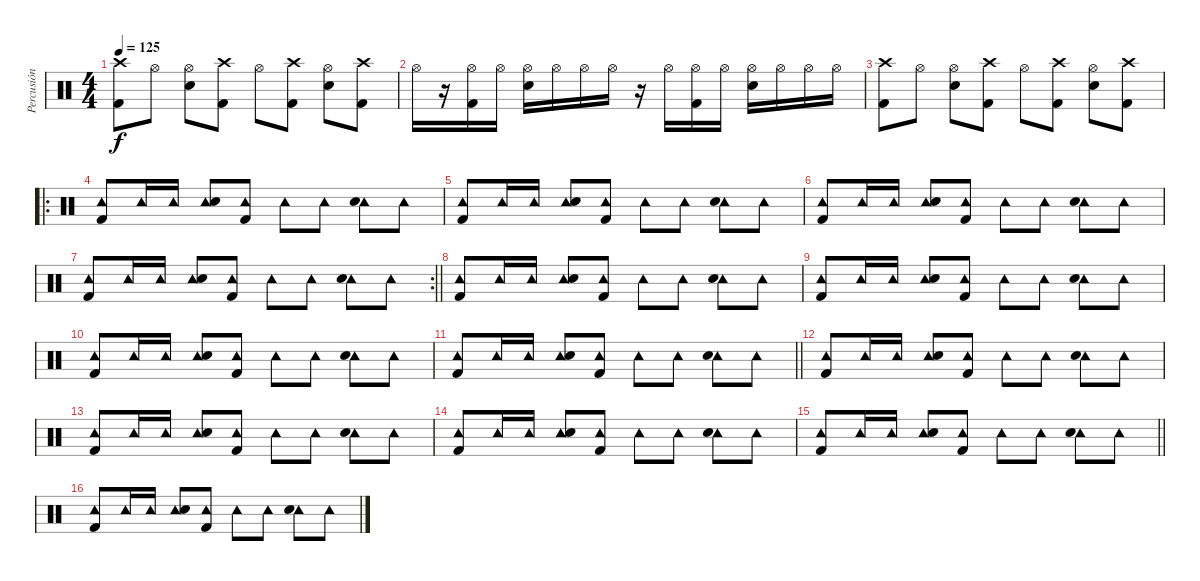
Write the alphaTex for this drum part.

\track ("Percusión" "Percusión") {instrument percussion}
\staff {score}
\articulation defaults
\ts (4 4)
\tempo 125
\clef neutral
\ks c
("Crash high (hit)" "Kick (hit) 2").8{dy f} "Hi-Hat (open)".8 ("Hi-Hat (open)" "Electric Snare (hit)").8 ("Crash high (hit)" "Kick (hit) 2").8 "Hi-Hat (open)".8 ("Crash high (hit)" "Kick (hit) 2").8 ("Hi-Hat (open)" "Electric Snare (hit)").8 ("Crash high (hit)" "Kick (hit) 2").8 |
"Hi-Hat (open)".16 r.16 ("Hi-Hat (open)" "Kick (hit) 2").16 "Hi-Hat (open)".16 ("Hi-Hat (open)" "Electric Snare (hit)").16 "Hi-Hat (open)".16 "Hi-Hat (open)".16 "Hi-Hat (open)".16 r.16 "Hi-Hat (open)".16 ("Hi-Hat (open)" "Kick (hit) 2").16 "Hi-Hat (open)".16 ("Hi-Hat (open)" "Electric Snare (hit)").16 "Hi-Hat (open)".16 "Hi-Hat (open)".16 "Hi-Hat (open)".16 |
("Crash high (hit)" "Kick (hit) 2").8 "Hi-Hat (open)".8 ("Hi-Hat (open)" "Electric Snare (hit)").8 ("Crash high (hit)" "Kick (hit) 2").8 "Hi-Hat (open)".8 ("Crash high (hit)" "Kick (hit) 2").8 ("Hi-Hat (open)" "Electric Snare (hit)").8 ("Crash high (hit)" "Kick (hit) 2").8 |
\ro
("Tambourine (hit)" "Kick (hit) 2").8 "Tambourine (hit)".16 "Tambourine (hit)".16 ("Tambourine (hit)" "Electric Snare (hit)").8 ("Tambourine (hit)" "Kick (hit) 2").8 "Tambourine (hit)".8 "Tambourine (hit)".8 ("Tambourine (hit)" "Electric Snare (hit)").8 "Tambourine (hit)".8 |
("Tambourine (hit)" "Kick (hit) 2").8 "Tambourine (hit)".16 "Tambourine (hit)".16 ("Tambourine (hit)" "Electric Snare (hit)").8 ("Tambourine (hit)" "Kick (hit) 2").8 "Tambourine (hit)".8 "Tambourine (hit)".8 ("Tambourine (hit)" "Electric Snare (hit)").8 "Tambourine (hit)".8 |
("Tambourine (hit)" "Kick (hit) 2").8 "Tambourine (hit)".16 "Tambourine (hit)".16 ("Tambourine (hit)" "Electric Snare (hit)").8 ("Tambourine (hit)" "Kick (hit) 2").8 "Tambourine (hit)".8 "Tambourine (hit)".8 ("Tambourine (hit)" "Electric Snare (hit)").8 "Tambourine (hit)".8 |
\rc 2
\barLineRight lightlight
("Tambourine (hit)" "Kick (hit) 2").8 "Tambourine (hit)".16 "Tambourine (hit)".16 ("Tambourine (hit)" "Electric Snare (hit)").8 ("Tambourine (hit)" "Kick (hit) 2").8 "Tambourine (hit)".8 "Tambourine (hit)".8 ("Tambourine (hit)" "Electric Snare (hit)").8 "Tambourine (hit)".8 |
("Tambourine (hit)" "Kick (hit) 2").8 "Tambourine (hit)".16 "Tambourine (hit)".16 ("Tambourine (hit)" "Electric Snare (hit)").8 ("Tambourine (hit)" "Kick (hit) 2").8 "Tambourine (hit)".8 "Tambourine (hit)".8 ("Tambourine (hit)" "Electric Snare (hit)").8 "Tambourine (hit)".8 |
("Tambourine (hit)" "Kick (hit) 2").8 "Tambourine (hit)".16 "Tambourine (hit)".16 ("Tambourine (hit)" "Electric Snare (hit)").8 ("Tambourine (hit)" "Kick (hit) 2").8 "Tambourine (hit)".8 "Tambourine (hit)".8 ("Tambourine (hit)" "Electric Snare (hit)").8 "Tambourine (hit)".8 |
("Tambourine (hit)" "Kick (hit) 2").8 "Tambourine (hit)".16 "Tambourine (hit)".16 ("Tambourine (hit)" "Electric Snare (hit)").8 ("Tambourine (hit)" "Kick (hit) 2").8 "Tambourine (hit)".8 "Tambourine (hit)".8 ("Tambourine (hit)" "Electric Snare (hit)").8 "Tambourine (hit)".8 |
\barLineRight lightlight
("Tambourine (hit)" "Kick (hit) 2").8 "Tambourine (hit)".16 "Tambourine (hit)".16 ("Tambourine (hit)" "Electric Snare (hit)").8 ("Tambourine (hit)" "Kick (hit) 2").8 "Tambourine (hit)".8 "Tambourine (hit)".8 ("Tambourine (hit)" "Electric Snare (hit)").8 "Tambourine (hit)".8 |
("Tambourine (hit)" "Kick (hit) 2").8 "Tambourine (hit)".16 "Tambourine (hit)".16 ("Tambourine (hit)" "Electric Snare (hit)").8 ("Tambourine (hit)" "Kick (hit) 2").8 "Tambourine (hit)".8 "Tambourine (hit)".8 ("Tambourine (hit)" "Electric Snare (hit)").8 "Tambourine (hit)".8 |
("Tambourine (hit)" "Kick (hit) 2").8 "Tambourine (hit)".16 "Tambourine (hit)".16 ("Tambourine (hit)" "Electric Snare (hit)").8 ("Tambourine (hit)" "Kick (hit) 2").8 "Tambourine (hit)".8 "Tambourine (hit)".8 ("Tambourine (hit)" "Electric Snare (hit)").8 "Tambourine (hit)".8 |
("Tambourine (hit)" "Kick (hit) 2").8 "Tambourine (hit)".16 "Tambourine (hit)".16 ("Tambourine (hit)" "Electric Snare (hit)").8 ("Tambourine (hit)" "Kick (hit) 2").8 "Tambourine (hit)".8 "Tambourine (hit)".8 ("Tambourine (hit)" "Electric Snare (hit)").8 "Tambourine (hit)".8 |
\barLineRight lightlight
("Tambourine (hit)" "Kick (hit) 2").8 "Tambourine (hit)".16 "Tambourine (hit)".16 ("Tambourine (hit)" "Electric Snare (hit)").8 ("Tambourine (hit)" "Kick (hit) 2").8 "Tambourine (hit)".8 "Tambourine (hit)".8 ("Tambourine (hit)" "Electric Snare (hit)").8 "Tambourine (hit)".8 |
("Tambourine (hit)" "Kick (hit) 2").8 "Tambourine (hit)".16 "Tambourine (hit)".16 ("Tambourine (hit)" "Electric Snare (hit)").8 ("Tambourine (hit)" "Kick (hit) 2").8 "Tambourine (hit)".8 "Tambourine (hit)".8 ("Tambourine (hit)" "Electric Snare (hit)").8 "Tambourine (hit)".8
